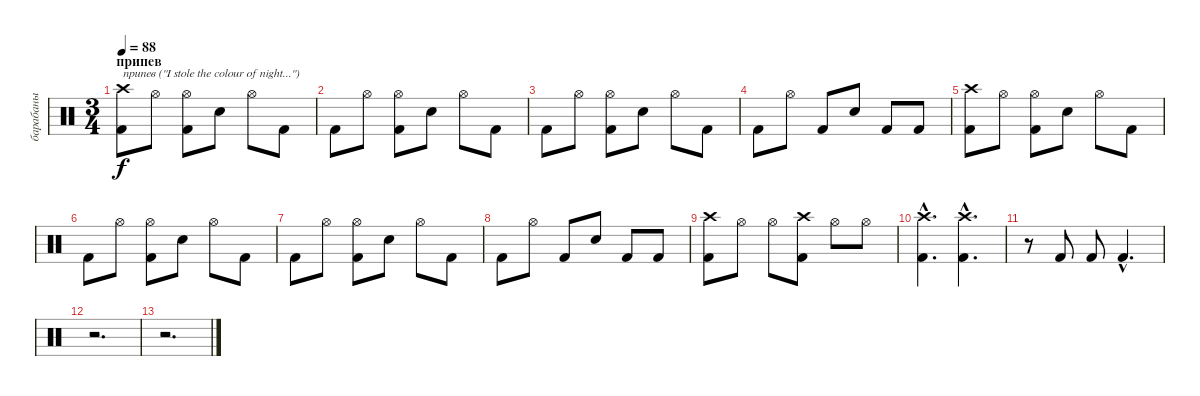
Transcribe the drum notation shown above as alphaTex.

\track ("барабаны" "барабаны") {instrument percussion}
\staff {score}
\articulation defaults
\ts (3 4)
\section ("" "припев")
\tempo 88
\clef neutral
\ks c
("Crash high (hit)" "Kick (hit) 2").8{txt "припев (\"I stole the colour of night...\")" dy f} "Hi-Hat (open)".8 ("Hi-Hat (open)" "Kick (hit) 2").8 "Snare (hit) 2".8 "Hi-Hat (open)".8 "Kick (hit) 2".8 |
"Kick (hit) 2".8 "Hi-Hat (open)".8 ("Hi-Hat (open)" "Kick (hit) 2").8 "Snare (hit) 2".8 "Hi-Hat (open)".8 "Kick (hit) 2".8 |
"Kick (hit) 2".8 "Hi-Hat (open)".8 ("Hi-Hat (open)" "Kick (hit) 2").8 "Snare (hit) 2".8 "Hi-Hat (open)".8 "Kick (hit) 2".8 |
"Kick (hit) 2".8 "Hi-Hat (open)".8 "Kick (hit) 2".8 "Snare (hit) 2".8 "Kick (hit) 2".8 "Kick (hit) 2".8 |
("Crash high (hit)" "Kick (hit) 2").8 "Hi-Hat (open)".8 ("Hi-Hat (open)" "Kick (hit) 2").8 "Snare (hit) 2".8 "Hi-Hat (open)".8 "Kick (hit) 2".8 |
"Kick (hit) 2".8 "Hi-Hat (open)".8 ("Hi-Hat (open)" "Kick (hit) 2").8 "Snare (hit) 2".8 "Hi-Hat (open)".8 "Kick (hit) 2".8 |
"Kick (hit) 2".8 "Hi-Hat (open)".8 ("Hi-Hat (open)" "Kick (hit) 2").8 "Snare (hit) 2".8 "Hi-Hat (open)".8 "Kick (hit) 2".8 |
"Kick (hit) 2".8 "Hi-Hat (open)".8 "Kick (hit) 2".8 "Snare (hit) 2".8 "Kick (hit) 2".8 "Kick (hit) 2".8 |
("Crash high (hit)" "Kick (hit) 2").8 "Hi-Hat (open)".8 "Hi-Hat (open)".8 ("Crash high (hit)" "Kick (hit) 2").8 "Hi-Hat (open)".8 "Hi-Hat (open)".8 |
("Crash high (hit)"{hac} "Kick (hit) 2"{hac}).4{d} ("Crash high (hit)"{hac} "Kick (hit) 2"{hac}).4{d} |
r.8 "Kick (hit) 2".8 "Kick (hit) 2".8 "Kick (hit) 2"{hac}.4{d} |
r.2{d} |
r.2{d}
